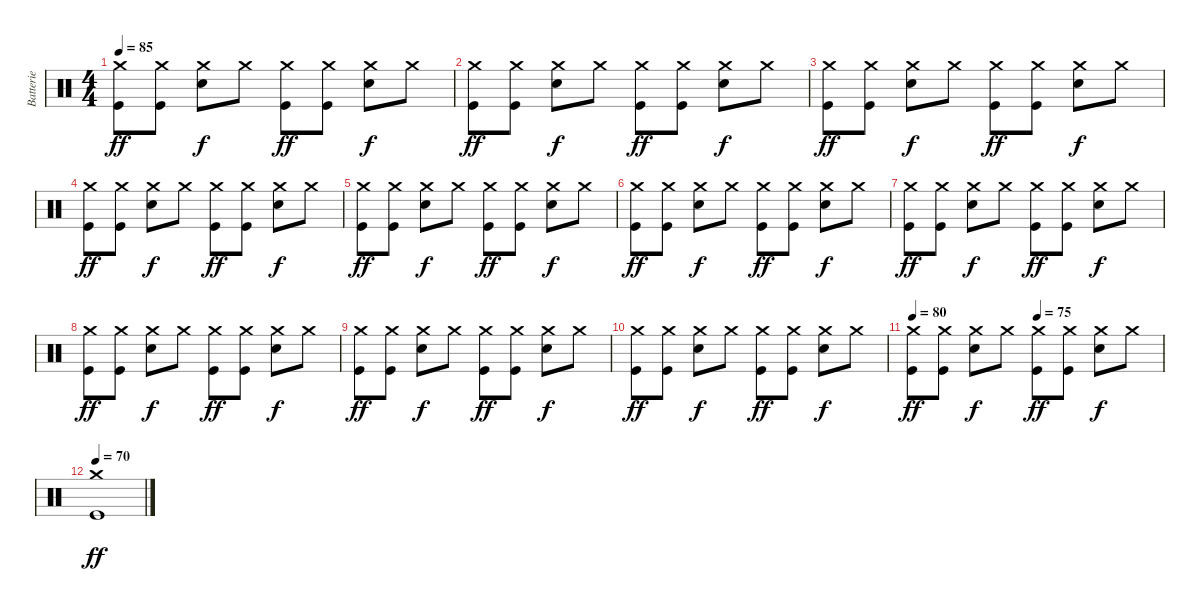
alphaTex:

\track ("Batterie" "Batterie") {instrument percussion}
\staff {score}
\articulation defaults
\ts (4 4)
\tempo 85
\clef neutral
\ks c
("Crash medium (hit)" "Kick (hit)").8{dy ff} ("Crash medium (hit)" "Kick (hit)").8 ("Crash medium (hit)" "Snare (hit) 2").8{dy f} "Crash medium (hit)".8 ("Crash medium (hit)" "Kick (hit)").8{dy ff} ("Crash medium (hit)" "Kick (hit)").8 ("Crash medium (hit)" "Snare (hit) 2").8{dy f} "Crash medium (hit)".8 |
("Crash medium (hit)" "Kick (hit)").8{dy ff} ("Crash medium (hit)" "Kick (hit)").8 ("Crash medium (hit)" "Snare (hit) 2").8{dy f} "Crash medium (hit)".8 ("Crash medium (hit)" "Kick (hit)").8{dy ff} ("Crash medium (hit)" "Kick (hit)").8 ("Crash medium (hit)" "Snare (hit) 2").8{dy f} "Crash medium (hit)".8 |
("Crash medium (hit)" "Kick (hit)").8{dy ff} ("Crash medium (hit)" "Kick (hit)").8 ("Crash medium (hit)" "Snare (hit) 2").8{dy f} "Crash medium (hit)".8 ("Crash medium (hit)" "Kick (hit)").8{dy ff} ("Crash medium (hit)" "Kick (hit)").8 ("Crash medium (hit)" "Snare (hit) 2").8{dy f} "Crash medium (hit)".8 |
("Crash medium (hit)" "Kick (hit)").8{dy ff} ("Crash medium (hit)" "Kick (hit)").8 ("Crash medium (hit)" "Snare (hit) 2").8{dy f} "Crash medium (hit)".8 ("Crash medium (hit)" "Kick (hit)").8{dy ff} ("Crash medium (hit)" "Kick (hit)").8 ("Crash medium (hit)" "Snare (hit) 2").8{dy f} "Crash medium (hit)".8 |
("Crash medium (hit)" "Kick (hit)").8{dy ff} ("Crash medium (hit)" "Kick (hit)").8 ("Crash medium (hit)" "Snare (hit) 2").8{dy f} "Crash medium (hit)".8 ("Crash medium (hit)" "Kick (hit)").8{dy ff} ("Crash medium (hit)" "Kick (hit)").8 ("Crash medium (hit)" "Snare (hit) 2").8{dy f} "Crash medium (hit)".8 |
("Crash medium (hit)" "Kick (hit)").8{dy ff} ("Crash medium (hit)" "Kick (hit)").8 ("Crash medium (hit)" "Snare (hit) 2").8{dy f} "Crash medium (hit)".8 ("Crash medium (hit)" "Kick (hit)").8{dy ff} ("Crash medium (hit)" "Kick (hit)").8 ("Crash medium (hit)" "Snare (hit) 2").8{dy f} "Crash medium (hit)".8 |
("Crash medium (hit)" "Kick (hit)").8{dy ff} ("Crash medium (hit)" "Kick (hit)").8 ("Crash medium (hit)" "Snare (hit) 2").8{dy f} "Crash medium (hit)".8 ("Crash medium (hit)" "Kick (hit)").8{dy ff} ("Crash medium (hit)" "Kick (hit)").8 ("Crash medium (hit)" "Snare (hit) 2").8{dy f} "Crash medium (hit)".8 |
("Crash medium (hit)" "Kick (hit)").8{dy ff} ("Crash medium (hit)" "Kick (hit)").8 ("Crash medium (hit)" "Snare (hit) 2").8{dy f} "Crash medium (hit)".8 ("Crash medium (hit)" "Kick (hit)").8{dy ff} ("Crash medium (hit)" "Kick (hit)").8 ("Crash medium (hit)" "Snare (hit) 2").8{dy f} "Crash medium (hit)".8 |
("Crash medium (hit)" "Kick (hit)").8{dy ff} ("Crash medium (hit)" "Kick (hit)").8 ("Crash medium (hit)" "Snare (hit) 2").8{dy f} "Crash medium (hit)".8 ("Crash medium (hit)" "Kick (hit)").8{dy ff} ("Crash medium (hit)" "Kick (hit)").8 ("Crash medium (hit)" "Snare (hit) 2").8{dy f} "Crash medium (hit)".8 |
("Crash medium (hit)" "Kick (hit)").8{dy ff} ("Crash medium (hit)" "Kick (hit)").8 ("Crash medium (hit)" "Snare (hit) 2").8{dy f} "Crash medium (hit)".8 ("Crash medium (hit)" "Kick (hit)").8{dy ff} ("Crash medium (hit)" "Kick (hit)").8 ("Crash medium (hit)" "Snare (hit) 2").8{dy f} "Crash medium (hit)".8 |
\tempo 80
\tempo (75 0.5)
("Crash medium (hit)" "Kick (hit)").8{dy ff} ("Crash medium (hit)" "Kick (hit)").8 ("Crash medium (hit)" "Snare (hit) 2").8{dy f} "Crash medium (hit)".8 ("Crash medium (hit)" "Kick (hit)").8{dy ff} ("Crash medium (hit)" "Kick (hit)").8 ("Crash medium (hit)" "Snare (hit) 2").8{dy f} "Crash medium (hit)".8 |
\tempo 70
("Crash medium (hit)" "Kick (hit)").1{dy ff}
